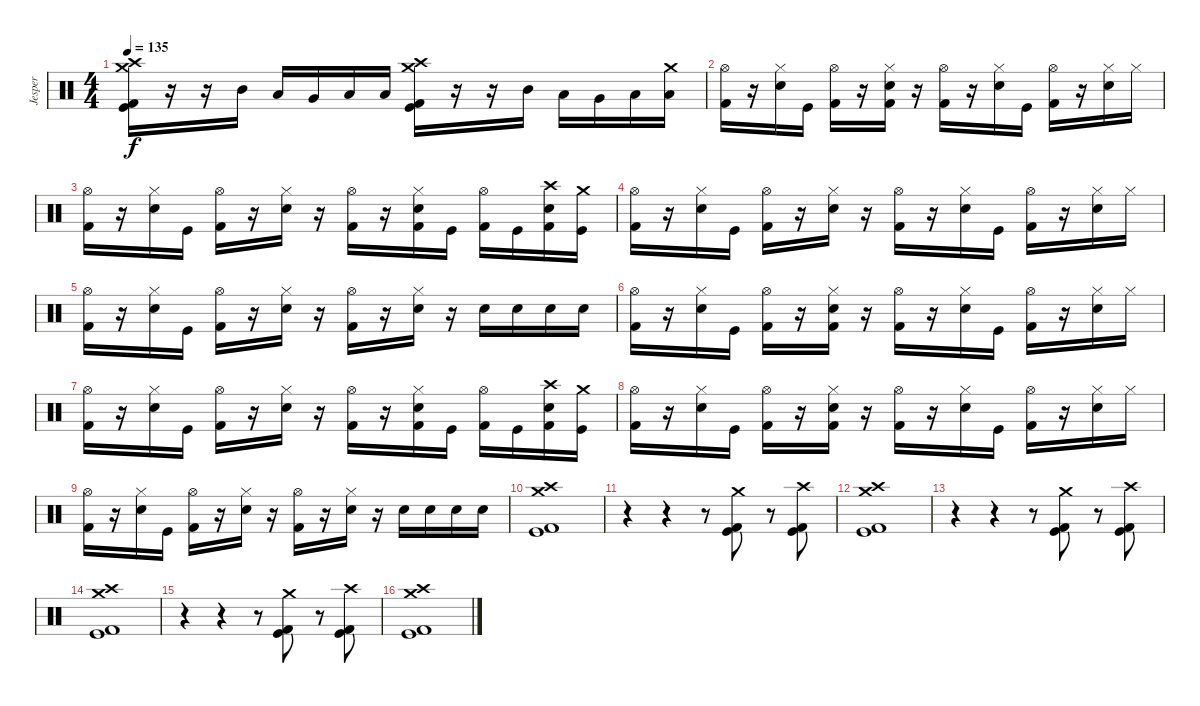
\track ("Jesper" "Jesper") {instrument percussion}
\staff {score}
\articulation defaults
\ts (4 4)
\tempo 135
\clef neutral
\ks c
("Kick (hit) 2" "Kick (hit)" "Crash medium (hit)" "Crash high (hit)").16{dy f} r.16 r.16 "Mid Tom (hit)".16 "Low Tom (hit)".16 "Very Low Tom (hit)".16 "Low Floor Tom (hit)".16 "Low Floor Tom (hit)".16 ("Kick (hit) 2" "Kick (hit)" "Crash medium (hit)" "Crash high (hit)").16 r.16 r.16 "Mid Tom (hit)".16 "Low Tom (hit)".16 "Very Low Tom (hit)".16 "Low Floor Tom (hit)".16 ("Low Floor Tom (hit)" "Crash medium (hit)").16 |
("Kick (hit) 2" "Hi-Hat (open)").16 r.16 ("Snare (hit) 2" "Hi-Hat (closed)").16 "Kick (hit)".16 ("Kick (hit) 2" "Hi-Hat (open)").16 r.16 ("Kick (hit) 2" "Snare (hit) 2" "Hi-Hat (closed)").16 r.16 ("Kick (hit) 2" "Hi-Hat (open)").16 r.16 ("Snare (hit) 2" "Hi-Hat (closed)").16 "Kick (hit)".16 ("Kick (hit) 2" "Hi-Hat (open)").16 r.16 ("Snare (hit) 2" "Hi-Hat (closed)").16 "Hi-Hat (closed)".16 |
("Kick (hit) 2" "Hi-Hat (open)").16 r.16 ("Snare (hit) 2" "Hi-Hat (closed)").16 "Kick (hit)".16 ("Kick (hit) 2" "Hi-Hat (open)").16 r.16 ("Snare (hit) 2" "Hi-Hat (closed)").16 r.16 ("Kick (hit) 2" "Hi-Hat (open)").16 r.16 ("Kick (hit) 2" "Snare (hit) 2" "Hi-Hat (closed)").16 "Kick (hit)".16 ("Kick (hit) 2" "Hi-Hat (open)").16 "Kick (hit)".16 ("Kick (hit) 2" "Snare (hit) 2" "Crash high (hit)").16 ("Kick (hit)" "Crash medium (hit)").16 |
("Kick (hit) 2" "Hi-Hat (open)").16 r.16 ("Snare (hit) 2" "Hi-Hat (closed)").16 "Kick (hit)".16 ("Kick (hit) 2" "Hi-Hat (open)").16 r.16 ("Snare (hit) 2" "Hi-Hat (closed)").16 r.16 ("Kick (hit) 2" "Hi-Hat (open)").16 r.16 ("Snare (hit) 2" "Hi-Hat (closed)").16 "Kick (hit)".16 ("Kick (hit) 2" "Hi-Hat (open)").16 r.16 ("Snare (hit) 2" "Hi-Hat (closed)").16 "Hi-Hat (closed)".16 |
("Kick (hit) 2" "Hi-Hat (open)").16 r.16 ("Snare (hit) 2" "Hi-Hat (closed)").16 "Kick (hit)".16 ("Kick (hit) 2" "Hi-Hat (open)").16 r.16 ("Snare (hit) 2" "Hi-Hat (closed)").16 r.16 ("Kick (hit) 2" "Hi-Hat (open)").16 r.16 ("Snare (hit) 2" "Hi-Hat (closed)").16 r.16 "Snare (hit) 2".16 "Snare (hit) 2".16 "Snare (hit) 2".16 "Snare (hit) 2".16 |
("Kick (hit) 2" "Hi-Hat (open)").16 r.16 ("Snare (hit) 2" "Hi-Hat (closed)").16 "Kick (hit)".16 ("Kick (hit) 2" "Hi-Hat (open)").16 r.16 ("Kick (hit) 2" "Snare (hit) 2" "Hi-Hat (closed)").16 r.16 ("Kick (hit) 2" "Hi-Hat (open)").16 r.16 ("Snare (hit) 2" "Hi-Hat (closed)").16 "Kick (hit)".16 ("Kick (hit) 2" "Hi-Hat (open)").16 r.16 ("Snare (hit) 2" "Hi-Hat (closed)").16 "Hi-Hat (closed)".16 |
("Kick (hit) 2" "Hi-Hat (open)").16 r.16 ("Snare (hit) 2" "Hi-Hat (closed)").16 "Kick (hit)".16 ("Kick (hit) 2" "Hi-Hat (open)").16 r.16 ("Snare (hit) 2" "Hi-Hat (closed)").16 r.16 ("Kick (hit) 2" "Hi-Hat (open)").16 r.16 ("Kick (hit) 2" "Snare (hit) 2" "Hi-Hat (closed)").16 "Kick (hit)".16 ("Kick (hit) 2" "Hi-Hat (open)").16 "Kick (hit)".16 ("Kick (hit) 2" "Snare (hit) 2" "Crash high (hit)").16 ("Kick (hit)" "Crash medium (hit)").16 |
("Kick (hit) 2" "Hi-Hat (open)").16 r.16 ("Snare (hit) 2" "Hi-Hat (closed)").16 "Kick (hit)".16 ("Kick (hit) 2" "Hi-Hat (open)").16 r.16 ("Kick (hit) 2" "Snare (hit) 2" "Hi-Hat (closed)").16 r.16 ("Kick (hit) 2" "Hi-Hat (open)").16 r.16 ("Snare (hit) 2" "Hi-Hat (closed)").16 "Kick (hit)".16 ("Kick (hit) 2" "Hi-Hat (open)").16 r.16 ("Snare (hit) 2" "Hi-Hat (closed)").16 "Hi-Hat (closed)".16 |
("Kick (hit) 2" "Hi-Hat (open)").16 r.16 ("Snare (hit) 2" "Hi-Hat (closed)").16 "Kick (hit)".16 ("Kick (hit) 2" "Hi-Hat (open)").16 r.16 ("Snare (hit) 2" "Hi-Hat (closed)").16 r.16 ("Kick (hit) 2" "Hi-Hat (open)").16 r.16 ("Snare (hit) 2" "Hi-Hat (closed)").16 r.16 "Snare (hit) 2".16 "Snare (hit) 2".16 "Snare (hit) 2".16 "Snare (hit) 2".16 |
("Kick (hit) 2" "Kick (hit)" "Crash high (hit)" "Crash medium (hit)").1 |
r.4 r.4 r.8 ("Kick (hit) 2" "Kick (hit)" "Crash medium (hit)").8 r.8 ("Kick (hit) 2" "Kick (hit)" "Crash high (hit)").8 |
("Kick (hit) 2" "Kick (hit)" "Crash high (hit)" "Crash medium (hit)").1 |
r.4 r.4 r.8 ("Kick (hit) 2" "Kick (hit)" "Crash medium (hit)").8 r.8 ("Kick (hit) 2" "Kick (hit)" "Crash high (hit)").8 |
("Kick (hit) 2" "Kick (hit)" "Crash high (hit)" "Crash medium (hit)").1 |
r.4 r.4 r.8 ("Kick (hit) 2" "Kick (hit)" "Crash medium (hit)").8 r.8 ("Kick (hit) 2" "Kick (hit)" "Crash high (hit)").8 |
("Kick (hit) 2" "Kick (hit)" "Crash high (hit)" "Crash medium (hit)").1
